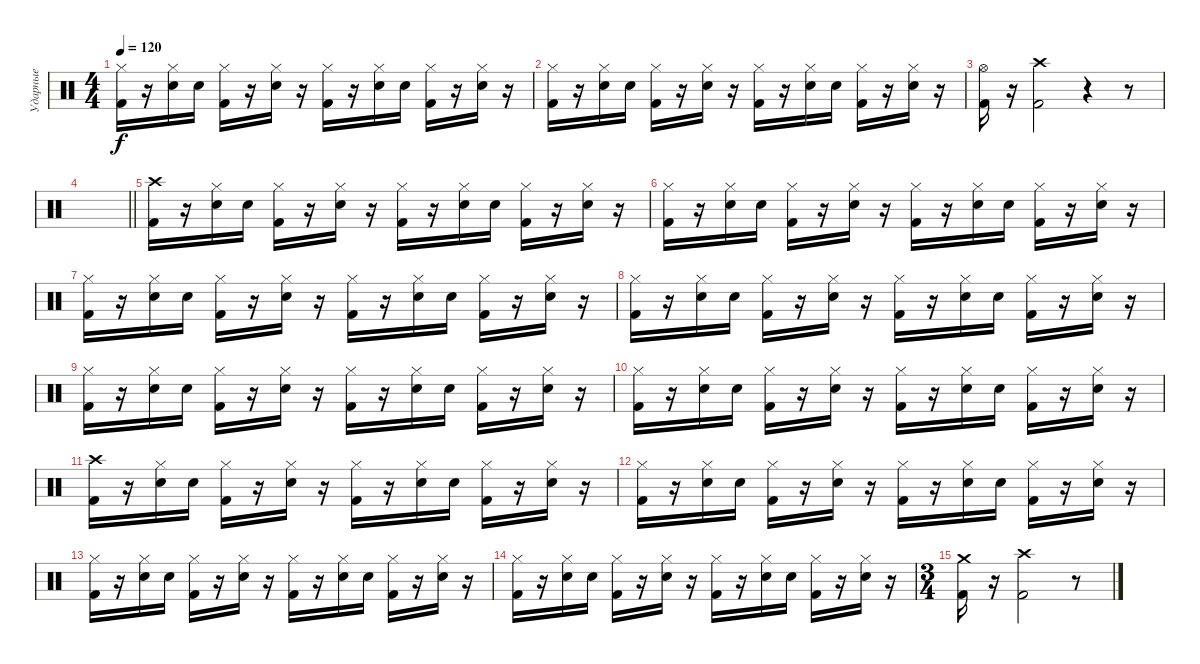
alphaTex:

\track ("Ударные" "Ударные") {instrument percussion}
\staff {score}
\articulation defaults
\ts (4 4)
\tempo 120
\clef neutral
\ks c
("Hi-Hat (closed)" "Kick (hit) 2").16{dy f} r.16 ("Hi-Hat (closed)" "Electric Snare (hit)").16 "Electric Snare (hit)".16 ("Hi-Hat (closed)" "Kick (hit) 2").16 r.16 ("Hi-Hat (closed)" "Electric Snare (hit)").16 r.16 ("Hi-Hat (closed)" "Kick (hit) 2").16 r.16 ("Hi-Hat (closed)" "Electric Snare (hit)").16 "Electric Snare (hit)".16 ("Hi-Hat (closed)" "Kick (hit) 2").16 r.16 ("Hi-Hat (closed)" "Electric Snare (hit)").16 r.16 |
("Hi-Hat (closed)" "Kick (hit) 2").16 r.16 ("Hi-Hat (closed)" "Electric Snare (hit)").16 "Electric Snare (hit)".16 ("Hi-Hat (closed)" "Kick (hit) 2").16 r.16 ("Hi-Hat (closed)" "Electric Snare (hit)").16 r.16 ("Hi-Hat (closed)" "Kick (hit) 2").16 r.16 ("Hi-Hat (closed)" "Electric Snare (hit)").16 "Electric Snare (hit)".16 ("Hi-Hat (closed)" "Kick (hit) 2").16 r.16 ("Hi-Hat (closed)" "Electric Snare (hit)").16 r.16 |
("Hi-Hat (open)" "Kick (hit) 2").16 r.16 ("Crash high (hit)" "Kick (hit) 2").2 r.4 r.8 |
\barLineRight lightlight
|
("Crash high (hit)" "Kick (hit) 2").16 r.16 ("Hi-Hat (closed)" "Electric Snare (hit)").16 "Electric Snare (hit)".16 ("Hi-Hat (closed)" "Kick (hit) 2").16 r.16 ("Hi-Hat (closed)" "Electric Snare (hit)").16 r.16 ("Hi-Hat (closed)" "Kick (hit) 2").16 r.16 ("Hi-Hat (closed)" "Electric Snare (hit)").16 "Electric Snare (hit)".16 ("Hi-Hat (closed)" "Kick (hit) 2").16 r.16 ("Hi-Hat (closed)" "Electric Snare (hit)").16 r.16 |
("Hi-Hat (closed)" "Kick (hit) 2").16 r.16 ("Hi-Hat (closed)" "Electric Snare (hit)").16 "Electric Snare (hit)".16 ("Hi-Hat (closed)" "Kick (hit) 2").16 r.16 ("Hi-Hat (closed)" "Electric Snare (hit)").16 r.16 ("Hi-Hat (closed)" "Kick (hit) 2").16 r.16 ("Hi-Hat (closed)" "Electric Snare (hit)").16 "Electric Snare (hit)".16 ("Hi-Hat (closed)" "Kick (hit) 2").16 r.16 ("Hi-Hat (closed)" "Electric Snare (hit)").16 r.16 |
("Hi-Hat (closed)" "Kick (hit) 2").16 r.16 ("Hi-Hat (closed)" "Electric Snare (hit)").16 "Electric Snare (hit)".16 ("Hi-Hat (closed)" "Kick (hit) 2").16 r.16 ("Hi-Hat (closed)" "Electric Snare (hit)").16 r.16 ("Hi-Hat (closed)" "Kick (hit) 2").16 r.16 ("Hi-Hat (closed)" "Electric Snare (hit)").16 "Electric Snare (hit)".16 ("Hi-Hat (closed)" "Kick (hit) 2").16 r.16 ("Hi-Hat (closed)" "Electric Snare (hit)").16 r.16 |
("Hi-Hat (closed)" "Kick (hit) 2").16 r.16 ("Hi-Hat (closed)" "Electric Snare (hit)").16 "Electric Snare (hit)".16 ("Hi-Hat (closed)" "Kick (hit) 2").16 r.16 ("Hi-Hat (closed)" "Electric Snare (hit)").16 r.16 ("Hi-Hat (closed)" "Kick (hit) 2").16 r.16 ("Hi-Hat (closed)" "Electric Snare (hit)").16 "Electric Snare (hit)".16 ("Hi-Hat (closed)" "Kick (hit) 2").16 r.16 ("Hi-Hat (closed)" "Electric Snare (hit)").16 r.16 |
("Hi-Hat (closed)" "Kick (hit) 2").16 r.16 ("Hi-Hat (closed)" "Electric Snare (hit)").16 "Electric Snare (hit)".16 ("Hi-Hat (closed)" "Kick (hit) 2").16 r.16 ("Hi-Hat (closed)" "Electric Snare (hit)").16 r.16 ("Hi-Hat (closed)" "Kick (hit) 2").16 r.16 ("Hi-Hat (closed)" "Electric Snare (hit)").16 "Electric Snare (hit)".16 ("Hi-Hat (closed)" "Kick (hit) 2").16 r.16 ("Hi-Hat (closed)" "Electric Snare (hit)").16 r.16 |
("Hi-Hat (closed)" "Kick (hit) 2").16 r.16 ("Hi-Hat (closed)" "Electric Snare (hit)").16 "Electric Snare (hit)".16 ("Hi-Hat (closed)" "Kick (hit) 2").16 r.16 ("Hi-Hat (closed)" "Electric Snare (hit)").16 r.16 ("Hi-Hat (closed)" "Kick (hit) 2").16 r.16 ("Hi-Hat (closed)" "Electric Snare (hit)").16 "Electric Snare (hit)".16 ("Hi-Hat (closed)" "Kick (hit) 2").16 r.16 ("Hi-Hat (closed)" "Electric Snare (hit)").16 r.16 |
("Crash high (hit)" "Kick (hit) 2").16 r.16 ("Hi-Hat (closed)" "Electric Snare (hit)").16 "Electric Snare (hit)".16 ("Hi-Hat (closed)" "Kick (hit) 2").16 r.16 ("Hi-Hat (closed)" "Electric Snare (hit)").16 r.16 ("Hi-Hat (closed)" "Kick (hit) 2").16 r.16 ("Hi-Hat (closed)" "Electric Snare (hit)").16 "Electric Snare (hit)".16 ("Hi-Hat (closed)" "Kick (hit) 2").16 r.16 ("Hi-Hat (closed)" "Electric Snare (hit)").16 r.16 |
("Hi-Hat (closed)" "Kick (hit) 2").16 r.16 ("Hi-Hat (closed)" "Electric Snare (hit)").16 "Electric Snare (hit)".16 ("Hi-Hat (closed)" "Kick (hit) 2").16 r.16 ("Hi-Hat (closed)" "Electric Snare (hit)").16 r.16 ("Hi-Hat (closed)" "Kick (hit) 2").16 r.16 ("Hi-Hat (closed)" "Electric Snare (hit)").16 "Electric Snare (hit)".16 ("Hi-Hat (closed)" "Kick (hit) 2").16 r.16 ("Hi-Hat (closed)" "Electric Snare (hit)").16 r.16 |
("Hi-Hat (closed)" "Kick (hit) 2").16 r.16 ("Hi-Hat (closed)" "Electric Snare (hit)").16 "Electric Snare (hit)".16 ("Hi-Hat (closed)" "Kick (hit) 2").16 r.16 ("Hi-Hat (closed)" "Electric Snare (hit)").16 r.16 ("Hi-Hat (closed)" "Kick (hit) 2").16 r.16 ("Hi-Hat (closed)" "Electric Snare (hit)").16 "Electric Snare (hit)".16 ("Hi-Hat (closed)" "Kick (hit) 2").16 r.16 ("Hi-Hat (closed)" "Electric Snare (hit)").16 r.16 |
("Hi-Hat (closed)" "Kick (hit) 2").16 r.16 ("Hi-Hat (closed)" "Electric Snare (hit)").16 "Electric Snare (hit)".16 ("Hi-Hat (closed)" "Kick (hit) 2").16 r.16 ("Hi-Hat (closed)" "Electric Snare (hit)").16 r.16 ("Hi-Hat (closed)" "Kick (hit) 2").16 r.16 ("Hi-Hat (closed)" "Electric Snare (hit)").16 "Electric Snare (hit)".16 ("Hi-Hat (closed)" "Kick (hit) 2").16 r.16 ("Hi-Hat (closed)" "Electric Snare (hit)").16 r.16 |
\ts (3 4)
("Crash medium (hit)" "Kick (hit) 2").16 r.16 ("Crash high (hit)" "Kick (hit) 2").2 r.8
